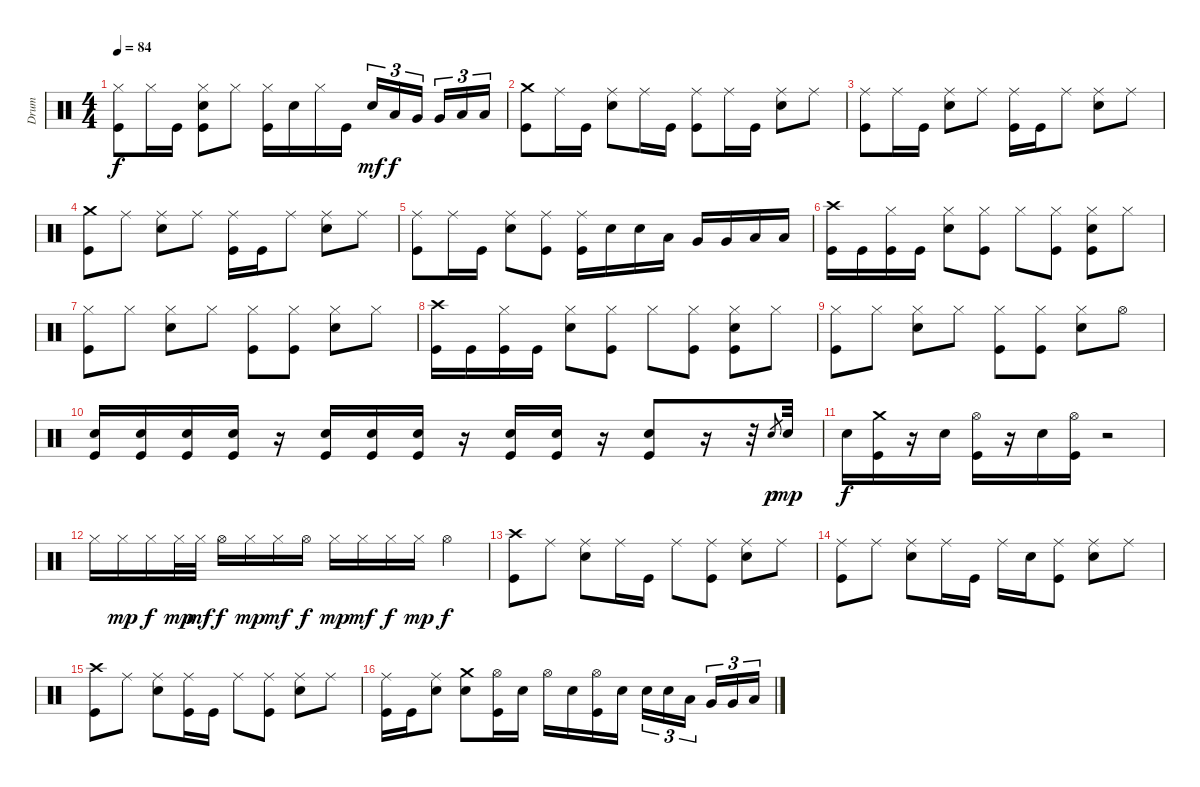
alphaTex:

\track ("Drum" "Drum") {instrument percussion}
\staff {score}
\articulation defaults
\ts (4 4)
\tempo 84
\clef neutral
\ks c
("Hi-Hat (closed)" "Kick (hit)").8{dy f} "Hi-Hat (closed)".16 "Kick (hit)".16 ("Hi-Hat (closed)" "Electric Snare (hit)" "Kick (hit)").8 "Hi-Hat (closed)".8 ("Hi-Hat (closed)" "Kick (hit)").16 "Electric Snare (hit)".16 "Hi-Hat (closed)".16 "Kick (hit)".16 "Electric Snare (hit)".16{tu (3 2) dy mf} "Low Tom (hit)".16{tu (3 2) dy f} "Very Low Tom (hit)".16{tu (3 2)} "Very Low Tom (hit)".16{tu (3 2)} "Low Floor Tom (hit)".16{tu (3 2)} "Low Floor Tom (hit)".16{tu (3 2)} |
("Crash medium (hit)" "Kick (hit)").8 "Ride (middle)".16 "Kick (hit)".16 ("Ride (middle)" "Electric Snare (hit)").8 "Ride (middle)".16 "Kick (hit)".16 ("Ride (middle)" "Kick (hit)").8 "Ride (middle)".16 "Kick (hit)".16 ("Ride (middle)" "Electric Snare (hit)").8 "Ride (middle)".8 |
("Ride (middle)" "Kick (hit)").8 "Ride (middle)".16 "Kick (hit)".16 ("Ride (middle)" "Electric Snare (hit)").8 "Ride (middle)".8 ("Ride (middle)" "Kick (hit)").16 "Kick (hit)".16 "Ride (middle)".8 ("Ride (middle)" "Electric Snare (hit)").8 "Ride (middle)".8 |
("Crash medium (hit)" "Kick (hit)").8 "Ride (middle)".8 ("Ride (middle)" "Electric Snare (hit)").8 "Ride (middle)".8 ("Ride (middle)" "Kick (hit)").16 "Kick (hit)".16 "Ride (middle)".8 ("Ride (middle)" "Electric Snare (hit)").8 "Ride (middle)".8 |
("Ride (middle)" "Kick (hit)").8 "Ride (middle)".16 "Kick (hit)".16 ("Ride (middle)" "Electric Snare (hit)").8 ("Ride (middle)" "Kick (hit)").8 ("Ride (middle)" "Kick (hit)").16 "Electric Snare (hit)".16 "Electric Snare (hit)".16 "Low Tom (hit)".16 "Very Low Tom (hit)".16 "Very Low Tom (hit)".16 "Low Floor Tom (hit)".16 "Low Floor Tom (hit)".16 |
("Crash high (hit)" "Kick (hit)").16 "Kick (hit)".16 ("Hi-Hat (closed)" "Kick (hit)").16 "Kick (hit)".16 ("Hi-Hat (closed)" "Electric Snare (hit)").8 ("Hi-Hat (closed)" "Kick (hit)").8 "Hi-Hat (closed)".8 ("Hi-Hat (closed)" "Kick (hit)").8 ("Hi-Hat (closed)" "Electric Snare (hit)" "Kick (hit)").8 "Hi-Hat (closed)".8 |
("Hi-Hat (closed)" "Kick (hit)").8 "Hi-Hat (closed)".8 ("Hi-Hat (closed)" "Electric Snare (hit)").8 "Hi-Hat (closed)".8 ("Hi-Hat (closed)" "Kick (hit)").8 ("Hi-Hat (closed)" "Kick (hit)").8 ("Hi-Hat (closed)" "Electric Snare (hit)").8 "Hi-Hat (closed)".8 |
("Crash high (hit)" "Kick (hit)").16 "Kick (hit)".16 ("Hi-Hat (closed)" "Kick (hit)").16 "Kick (hit)".16 ("Hi-Hat (closed)" "Electric Snare (hit)").8 ("Hi-Hat (closed)" "Kick (hit)").8 "Hi-Hat (closed)".8 ("Hi-Hat (closed)" "Kick (hit)").8 ("Hi-Hat (closed)" "Electric Snare (hit)" "Kick (hit)").8 "Hi-Hat (closed)".8 |
("Hi-Hat (closed)" "Kick (hit)").8 "Hi-Hat (closed)".8 ("Hi-Hat (closed)" "Electric Snare (hit)").8 "Hi-Hat (closed)".8 ("Hi-Hat (closed)" "Kick (hit)").8 ("Hi-Hat (closed)" "Kick (hit)").8 ("Hi-Hat (closed)" "Electric Snare (hit)").8 "Hi-Hat (open)".8 |
("Electric Snare (hit)" "Kick (hit)").16 ("Electric Snare (hit)" "Kick (hit)").16 ("Electric Snare (hit)" "Kick (hit)").16 ("Electric Snare (hit)" "Kick (hit)").16 r.16 ("Electric Snare (hit)" "Kick (hit)").16 ("Electric Snare (hit)" "Kick (hit)").16 ("Electric Snare (hit)" "Kick (hit)").16 r.16 ("Electric Snare (hit)" "Kick (hit)").16 ("Electric Snare (hit)" "Kick (hit)").16 r.16 ("Electric Snare (hit)" "Kick (hit)").8 r.16 r.32 "Electric Snare (hit)".8{gr dy p} "Electric Snare (hit)".32{dy mp} |
"Electric Snare (hit)".16{dy f} ("Crash medium (hit)" "Kick (hit)").16 r.16 "Electric Snare (hit)".16 ("Hi-Hat (open)" "Kick (hit)").16 r.16 "Electric Snare (hit)".16 ("Hi-Hat (open)" "Kick (hit)").16 r.2 |
"Hi-Hat (closed)".16 "Hi-Hat (closed)".16{dy mp} "Hi-Hat (closed)".16{dy f} "Hi-Hat (closed)".32{dy mp} "Hi-Hat (closed)".32{dy mf} "Hi-Hat (open)".16{dy f} "Hi-Hat (closed)".16{dy mp} "Hi-Hat (closed)".16{dy mf} "Hi-Hat (open)".16{dy f} "Hi-Hat (closed)".16{dy mp} "Hi-Hat (closed)".16{dy mf} "Hi-Hat (closed)".16{dy f} "Hi-Hat (closed)".16{dy mp} "Hi-Hat (open)".4{dy f} |
("Crash high (hit)" "Kick (hit)").8 "Ride (middle)".8 ("Ride (middle)" "Electric Snare (hit)").8 "Ride (middle)".16 "Kick (hit)".16 "Ride (middle)".8 ("Ride (middle)" "Kick (hit)").8 ("Ride (middle)" "Electric Snare (hit)").8 "Ride (middle)".8 |
("Ride (middle)" "Kick (hit)").8 "Ride (middle)".8 ("Ride (middle)" "Electric Snare (hit)").8 "Ride (middle)".16 "Kick (hit)".16 "Ride (middle)".16 "Electric Snare (hit)".16 ("Ride (middle)" "Kick (hit)").8 ("Ride (middle)" "Electric Snare (hit)").8 "Ride (middle)".8 |
("Crash high (hit)" "Kick (hit)").8 "Ride (middle)".8 ("Ride (middle)" "Electric Snare (hit)").8 ("Ride (middle)" "Kick (hit)").16 "Kick (hit)".16 "Ride (middle)".8 ("Ride (middle)" "Kick (hit)").8 ("Ride (middle)" "Electric Snare (hit)").8 "Ride (middle)".8 |
("Ride (middle)" "Kick (hit)").16 "Kick (hit)".16 ("Ride (middle)" "Electric Snare (hit)").8 ("Crash medium (hit)" "Electric Snare (hit)").8 ("Hi-Hat (open)" "Kick (hit)").16 "Electric Snare (hit)".16 "Hi-Hat (open)".16 "Electric Snare (hit)".16 ("Hi-Hat (open)" "Kick (hit)").16 "Electric Snare (hit)".16 "Electric Snare (hit)".16{tu (3 2)} "Electric Snare (hit)".16{tu (3 2)} "Low Tom (hit)".16{tu (3 2)} "Very Low Tom (hit)".16{tu (3 2)} "Very Low Tom (hit)".16{tu (3 2)} "Low Floor Tom (hit)".16{tu (3 2)}
